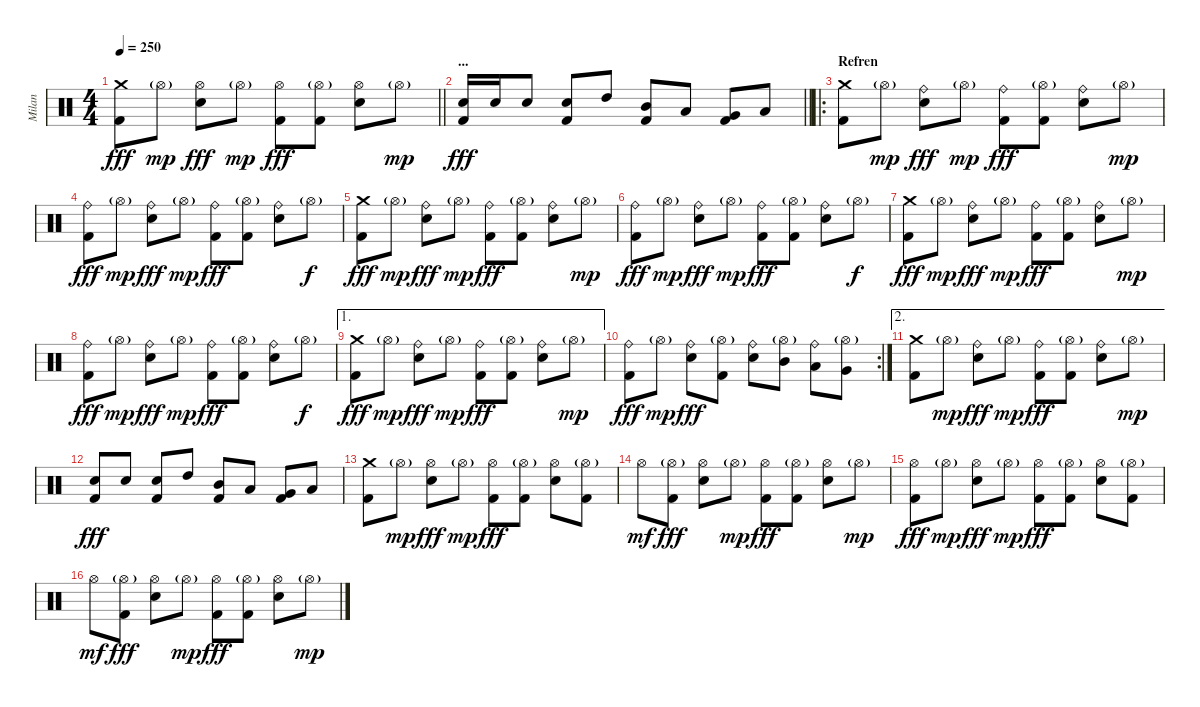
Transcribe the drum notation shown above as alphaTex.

\track ("Milan" "Milan") {instrument percussion}
\staff {score}
\articulation defaults
\ts (4 4)
\tempo 250
\clef neutral
\barLineRight lightlight
\ks c
("Crash medium (hit)" "Kick (hit) 2").8{dy fff} "Hi-Hat (open)"{g}.8{dy mp} ("Hi-Hat (open)" "Snare (hit) 2").8{dy fff} "Hi-Hat (open)"{g}.8{dy mp} ("Hi-Hat (open)" "Kick (hit) 2").8{dy fff} ("Hi-Hat (open)"{g} "Kick (hit) 2").8 ("Hi-Hat (open)" "Snare (hit) 2").8 "Hi-Hat (open)"{g}.8{dy mp} |
\section ("" "...")
\barLineRight lightlight
("Snare (hit) 2" "Kick (hit) 2").16{dy fff} "Snare (hit) 2".16 "Snare (hit) 2".8 ("Snare (hit) 2" "Kick (hit) 2").8 "High Tom (hit)".8 ("Mid Tom (hit)" "Kick (hit) 2").8 "Low Tom (hit)".8 ("Very Low Tom (hit)" "Kick (hit) 2").8 "Low Floor Tom (hit)".8 |
\ro
\section ("" "Refren")
("Crash medium (hit)" "Kick (hit) 2").8 "Hi-Hat (open)"{g}.8{dy mp} ("Ride (bell)" "Snare (hit) 2").8{dy fff} "Hi-Hat (open)"{g}.8{dy mp} ("Ride (bell)" "Kick (hit) 2").8{dy fff} ("Hi-Hat (open)"{g} "Kick (hit) 2").8 ("Ride (bell)" "Snare (hit) 2").8 "Hi-Hat (open)"{g}.8{dy mp} |
("Ride (bell)" "Kick (hit) 2").8{dy fff} "Hi-Hat (open)"{g}.8{dy mp} ("Ride (bell)" "Snare (hit) 2").8{dy fff} "Hi-Hat (open)"{g}.8{dy mp} ("Ride (bell)" "Kick (hit) 2").8{dy fff} ("Hi-Hat (open)"{g} "Kick (hit) 2").8 ("Ride (bell)" "Snare (hit) 2").8 "Hi-Hat (open)"{g}.8{dy f} |
("Crash medium (hit)" "Kick (hit) 2").8{dy fff} "Hi-Hat (open)"{g}.8{dy mp} ("Ride (bell)" "Snare (hit) 2").8{dy fff} "Hi-Hat (open)"{g}.8{dy mp} ("Ride (bell)" "Kick (hit) 2").8{dy fff} ("Hi-Hat (open)"{g} "Kick (hit) 2").8 ("Ride (bell)" "Snare (hit) 2").8 "Hi-Hat (open)"{g}.8{dy mp} |
("Ride (bell)" "Kick (hit) 2").8{dy fff} "Hi-Hat (open)"{g}.8{dy mp} ("Ride (bell)" "Snare (hit) 2").8{dy fff} "Hi-Hat (open)"{g}.8{dy mp} ("Ride (bell)" "Kick (hit) 2").8{dy fff} ("Hi-Hat (open)"{g} "Kick (hit) 2").8 ("Ride (bell)" "Snare (hit) 2").8 "Hi-Hat (open)"{g}.8{dy f} |
("Crash medium (hit)" "Kick (hit) 2").8{dy fff} "Hi-Hat (open)"{g}.8{dy mp} ("Ride (bell)" "Snare (hit) 2").8{dy fff} "Hi-Hat (open)"{g}.8{dy mp} ("Ride (bell)" "Kick (hit) 2").8{dy fff} ("Hi-Hat (open)"{g} "Kick (hit) 2").8 ("Ride (bell)" "Snare (hit) 2").8 "Hi-Hat (open)"{g}.8{dy mp} |
("Ride (bell)" "Kick (hit) 2").8{dy fff} "Hi-Hat (open)"{g}.8{dy mp} ("Ride (bell)" "Snare (hit) 2").8{dy fff} "Hi-Hat (open)"{g}.8{dy mp} ("Ride (bell)" "Kick (hit) 2").8{dy fff} ("Hi-Hat (open)"{g} "Kick (hit) 2").8 ("Ride (bell)" "Snare (hit) 2").8 "Hi-Hat (open)"{g}.8{dy f} |
\ae 1
("Crash medium (hit)" "Kick (hit) 2").8{dy fff} "Hi-Hat (open)"{g}.8{dy mp} ("Ride (bell)" "Snare (hit) 2").8{dy fff} "Hi-Hat (open)"{g}.8{dy mp} ("Ride (bell)" "Kick (hit) 2").8{dy fff} ("Hi-Hat (open)"{g} "Kick (hit) 2").8 ("Ride (bell)" "Snare (hit) 2").8 "Hi-Hat (open)"{g}.8{dy mp} |
\rc 2
("Ride (bell)" "Kick (hit) 2").8{dy fff} "Hi-Hat (open)"{g}.8{dy mp} ("Ride (bell)" "Snare (hit) 2").8{dy fff} ("Hi-Hat (open)"{g} "Kick (hit) 2").8 ("Ride (bell)" "Snare (hit) 2").8 ("Hi-Hat (open)"{g} "Mid Tom (hit)").8 ("Ride (bell)" "Low Tom (hit)").8 ("Hi-Hat (open)"{g} "Very Low Tom (hit)").8 |
\ae 2
("Crash medium (hit)" "Kick (hit) 2").8 "Hi-Hat (open)"{g}.8{dy mp} ("Ride (bell)" "Snare (hit) 2").8{dy fff} "Hi-Hat (open)"{g}.8{dy mp} ("Ride (bell)" "Kick (hit) 2").8{dy fff} ("Hi-Hat (open)"{g} "Kick (hit) 2").8 ("Ride (bell)" "Snare (hit) 2").8 "Hi-Hat (open)"{g}.8{dy mp} |
("Snare (hit) 2" "Kick (hit) 2").8{dy fff} "Snare (hit) 2".8 ("Snare (hit) 2" "Kick (hit) 2").8 "High Tom (hit)".8 ("Mid Tom (hit)" "Kick (hit) 2").8 "Low Tom (hit)".8 ("Very Low Tom (hit)" "Kick (hit) 2").8 "Low Floor Tom (hit)".8 |
("Crash medium (hit)" "Kick (hit) 2").8 "Hi-Hat (open)"{g}.8{dy mp} ("Hi-Hat (open)" "Snare (hit) 2").8{dy fff} "Hi-Hat (open)"{g}.8{dy mp} ("Hi-Hat (open)" "Kick (hit) 2").8{dy fff} ("Hi-Hat (open)"{g} "Kick (hit) 2").8 ("Hi-Hat (open)" "Snare (hit) 2").8 ("Hi-Hat (open)"{g} "Kick (hit) 2").8 |
"Hi-Hat (open)".8{dy mf} ("Hi-Hat (open)"{g} "Kick (hit) 2").8{dy fff} ("Hi-Hat (open)" "Snare (hit) 2").8 "Hi-Hat (open)"{g}.8{dy mp} ("Hi-Hat (open)" "Kick (hit) 2").8{dy fff} ("Hi-Hat (open)"{g} "Kick (hit) 2").8 ("Hi-Hat (open)" "Snare (hit) 2").8 "Hi-Hat (open)"{g}.8{dy mp} |
("Hi-Hat (open)" "Kick (hit) 2").8{dy fff} "Hi-Hat (open)"{g}.8{dy mp} ("Hi-Hat (open)" "Snare (hit) 2").8{dy fff} "Hi-Hat (open)"{g}.8{dy mp} ("Hi-Hat (open)" "Kick (hit) 2").8{dy fff} ("Hi-Hat (open)"{g} "Kick (hit) 2").8 ("Hi-Hat (open)" "Snare (hit) 2").8 ("Hi-Hat (open)"{g} "Kick (hit) 2").8 |
"Hi-Hat (open)".8{dy mf} ("Hi-Hat (open)"{g} "Kick (hit) 2").8{dy fff} ("Hi-Hat (open)" "Snare (hit) 2").8 "Hi-Hat (open)"{g}.8{dy mp} ("Hi-Hat (open)" "Kick (hit) 2").8{dy fff} ("Hi-Hat (open)"{g} "Kick (hit) 2").8 ("Hi-Hat (open)" "Snare (hit) 2").8 "Hi-Hat (open)"{g}.8{dy mp}
